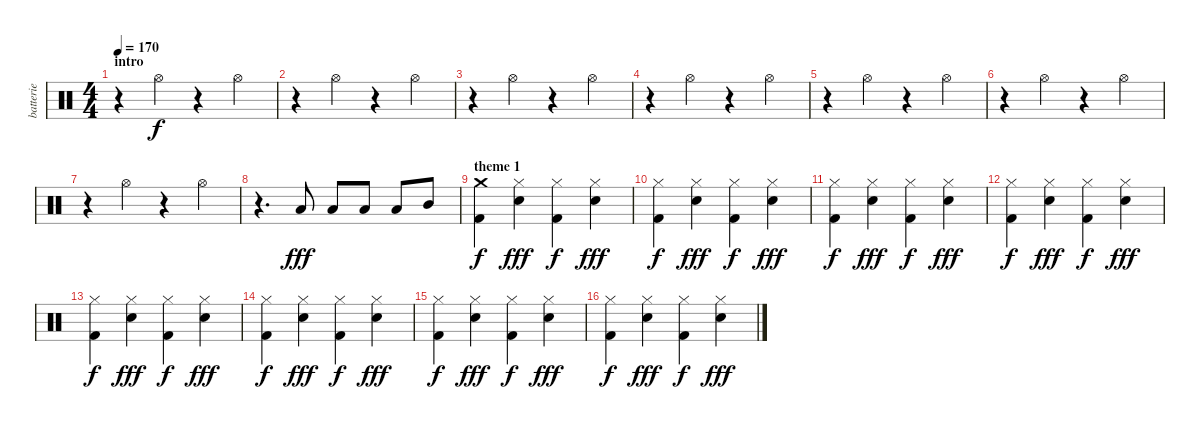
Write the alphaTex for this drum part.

\track ("batterie" "batterie") {instrument percussion}
\staff {score}
\articulation defaults
\ts (4 4)
\section ("" "intro")
\tempo 170
\clef neutral
\ks c
r.4{dy f} "Hi-Hat (open)".4 r.4 "Hi-Hat (open)".4 |
r.4 "Hi-Hat (open)".4 r.4 "Hi-Hat (open)".4 |
r.4 "Hi-Hat (open)".4 r.4 "Hi-Hat (open)".4 |
r.4 "Hi-Hat (open)".4 r.4 "Hi-Hat (open)".4 |
r.4 "Hi-Hat (open)".4 r.4 "Hi-Hat (open)".4 |
r.4 "Hi-Hat (open)".4 r.4 "Hi-Hat (open)".4 |
r.4 "Hi-Hat (open)".4 r.4 "Hi-Hat (open)".4 |
r.4{d} "Low Tom (hit)".8{dy fff} "Low Tom (hit)".8 "Low Tom (hit)".8 "Low Tom (hit)".8 "Mid Tom (hit)".8 |
\section ("" "theme 1")
("Crash medium (hit)" "Kick (hit) 2").4{dy f} ("Hi-Hat (closed)" "Electric Snare (hit)").4{dy fff} ("Hi-Hat (closed)" "Kick (hit) 2").4{dy f} ("Hi-Hat (closed)" "Electric Snare (hit)").4{dy fff} |
("Hi-Hat (closed)" "Kick (hit) 2").4{dy f} ("Hi-Hat (closed)" "Electric Snare (hit)").4{dy fff} ("Hi-Hat (closed)" "Kick (hit) 2").4{dy f} ("Hi-Hat (closed)" "Electric Snare (hit)").4{dy fff} |
("Hi-Hat (closed)" "Kick (hit) 2").4{dy f} ("Hi-Hat (closed)" "Electric Snare (hit)").4{dy fff} ("Hi-Hat (closed)" "Kick (hit) 2").4{dy f} ("Hi-Hat (closed)" "Electric Snare (hit)").4{dy fff} |
("Hi-Hat (closed)" "Kick (hit) 2").4{dy f} ("Hi-Hat (closed)" "Electric Snare (hit)").4{dy fff} ("Hi-Hat (closed)" "Kick (hit) 2").4{dy f} ("Hi-Hat (closed)" "Electric Snare (hit)").4{dy fff} |
("Hi-Hat (closed)" "Kick (hit) 2").4{dy f} ("Hi-Hat (closed)" "Electric Snare (hit)").4{dy fff} ("Hi-Hat (closed)" "Kick (hit) 2").4{dy f} ("Hi-Hat (closed)" "Electric Snare (hit)").4{dy fff} |
("Hi-Hat (closed)" "Kick (hit) 2").4{dy f} ("Hi-Hat (closed)" "Electric Snare (hit)").4{dy fff} ("Hi-Hat (closed)" "Kick (hit) 2").4{dy f} ("Hi-Hat (closed)" "Electric Snare (hit)").4{dy fff} |
("Hi-Hat (closed)" "Kick (hit) 2").4{dy f} ("Hi-Hat (closed)" "Electric Snare (hit)").4{dy fff} ("Hi-Hat (closed)" "Kick (hit) 2").4{dy f} ("Hi-Hat (closed)" "Electric Snare (hit)").4{dy fff} |
("Hi-Hat (closed)" "Kick (hit) 2").4{dy f} ("Hi-Hat (closed)" "Electric Snare (hit)").4{dy fff} ("Hi-Hat (closed)" "Kick (hit) 2").4{dy f} ("Hi-Hat (closed)" "Electric Snare (hit)").4{dy fff}
